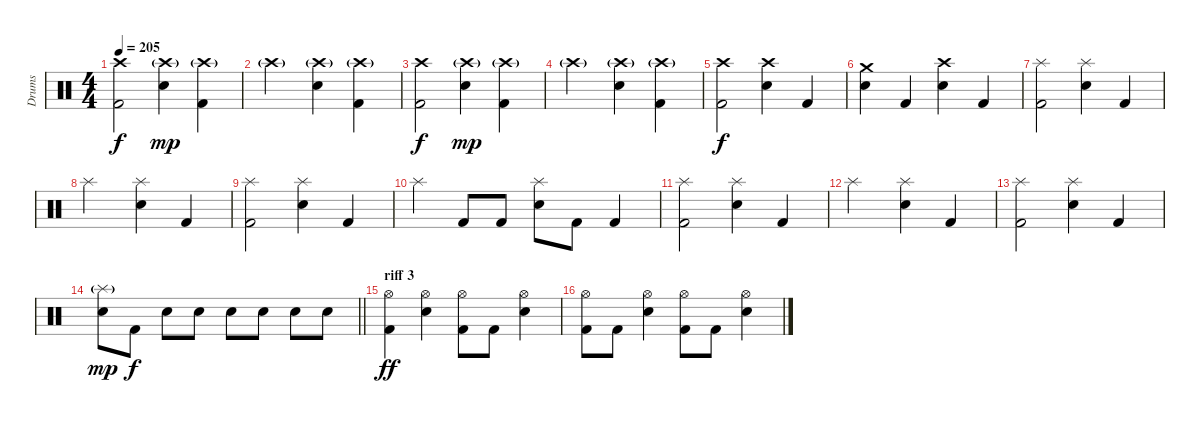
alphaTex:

\track ("Drums" "Drums") {instrument percussion}
\staff {score}
\articulation defaults
\ts (4 4)
\tempo 205
\clef neutral
\ks c
("Crash high (hit)" "Kick (hit) 2").2{dy f} ("Crash high (hit)"{g} "Snare (hit) 2").4{dy mp} ("Crash high (hit)"{g} "Kick (hit) 2").4 |
"Crash high (hit)"{g}.2 ("Crash high (hit)"{g} "Snare (hit) 2").4 ("Crash high (hit)"{g} "Kick (hit) 2").4 |
("Crash high (hit)" "Kick (hit) 2").2{dy f} ("Crash high (hit)"{g} "Snare (hit) 2").4{dy mp} ("Crash high (hit)"{g} "Kick (hit) 2").4 |
"Crash high (hit)"{g}.2 ("Crash high (hit)"{g} "Snare (hit) 2").4 ("Crash high (hit)"{g} "Kick (hit) 2").4 |
("Crash high (hit)" "Kick (hit) 2").2{dy f} ("Crash high (hit)" "Snare (hit) 2").4 "Kick (hit) 2".4 |
("Crash medium (hit)" "Snare (hit) 2").4 "Kick (hit) 2".4 ("Crash high (hit)" "Snare (hit) 2").4 "Kick (hit) 2".4 |
("Splash (hit)" "Kick (hit) 2").2 ("Splash (hit)" "Snare (hit) 2").4 "Kick (hit) 2".4 |
"Splash (hit)".2 ("Splash (hit)" "Snare (hit) 2").4 "Kick (hit) 2".4 |
("Splash (hit)" "Kick (hit) 2").2 ("Splash (hit)" "Snare (hit) 2").4 "Kick (hit) 2".4 |
"Splash (hit)".4 "Kick (hit) 2".8 "Kick (hit) 2".8 ("Splash (hit)" "Snare (hit) 2").8 "Kick (hit) 2".8 "Kick (hit) 2".4 |
("Splash (hit)" "Kick (hit) 2").2 ("Splash (hit)" "Snare (hit) 2").4 "Kick (hit) 2".4 |
"Splash (hit)".2 ("Splash (hit)" "Snare (hit) 2").4 "Kick (hit) 2".4 |
("Splash (hit)" "Kick (hit) 2").2 ("Splash (hit)" "Snare (hit) 2").4 "Kick (hit) 2".4 |
\barLineRight lightlight
("Splash (hit)"{g} "Electric Snare (hit)").8{dy mp} "Kick (hit) 2".8{dy f} "Electric Snare (hit)".8 "Electric Snare (hit)".8 "Electric Snare (hit)".8 "Electric Snare (hit)".8 "Electric Snare (hit)".8 "Electric Snare (hit)".8 |
\section ("" "riff 3")
("Hi-Hat (open)" "Kick (hit) 2").4{dy ff} ("Hi-Hat (open)" "Snare (hit) 2").4 ("Hi-Hat (open)" "Kick (hit) 2").8 "Kick (hit) 2".8 ("Hi-Hat (open)" "Snare (hit) 2").4 |
("Hi-Hat (open)" "Kick (hit) 2").8 "Kick (hit) 2".8 ("Hi-Hat (open)" "Snare (hit) 2").4 ("Hi-Hat (open)" "Kick (hit) 2").8 "Kick (hit) 2".8 ("Hi-Hat (open)" "Snare (hit) 2").4
